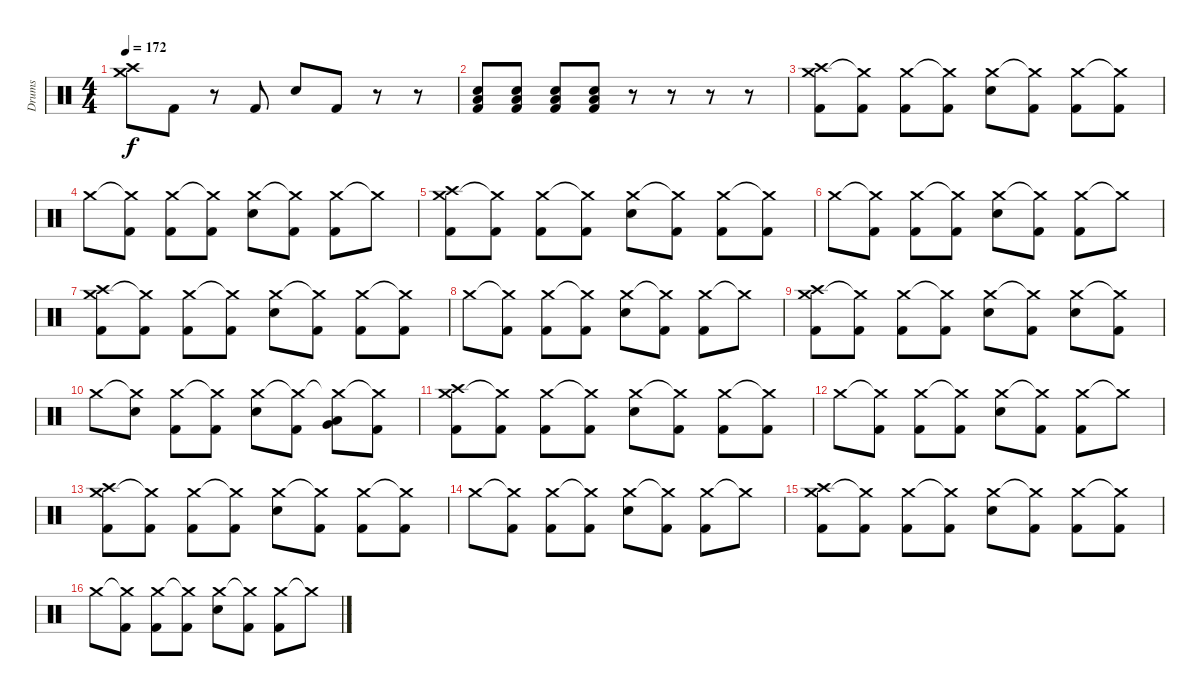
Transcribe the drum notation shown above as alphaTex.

\track ("Drums" "Drums") {instrument percussion}
\staff {score}
\articulation defaults
\ts (4 4)
\tempo 172
\clef neutral
\ks c
("Crash medium (hit)" "Crash high (hit)").8{dy f} "Kick (hit) 2".8 r.8 "Kick (hit) 2".8 "Electric Snare (hit)".8 "Kick (hit) 2".8 r.8 r.8 |
("Low Floor Tom (hit)" "Electric Snare (hit)" "Kick (hit) 2").8 ("Low Floor Tom (hit)" "Electric Snare (hit)" "Kick (hit) 2").8 ("Low Floor Tom (hit)" "Electric Snare (hit)" "Kick (hit) 2").8 ("Low Floor Tom (hit)" "Electric Snare (hit)" "Kick (hit) 2").8 r.8 r.8 r.8 r.8 |
("Crash medium (hit)" "Crash high (hit)" "Kick (hit) 2").8 ("Crash medium (hit)"{t} "Kick (hit) 2").8 ("Crash medium (hit)" "Kick (hit) 2").8 ("Crash medium (hit)"{t} "Kick (hit) 2").8 ("Crash medium (hit)" "Electric Snare (hit)").8 ("Crash medium (hit)"{t} "Kick (hit) 2").8 ("Crash medium (hit)" "Kick (hit) 2").8 ("Crash medium (hit)"{t} "Kick (hit) 2").8 |
"Crash medium (hit)".8 ("Crash medium (hit)"{t} "Kick (hit) 2").8 ("Crash medium (hit)" "Kick (hit) 2").8 ("Crash medium (hit)"{t} "Kick (hit) 2").8 ("Crash medium (hit)" "Electric Snare (hit)").8 ("Crash medium (hit)"{t} "Kick (hit) 2").8 ("Crash medium (hit)" "Kick (hit) 2").8 "Crash medium (hit)"{t}.8 |
("Crash medium (hit)" "Crash high (hit)" "Kick (hit) 2").8 ("Crash medium (hit)"{t} "Kick (hit) 2").8 ("Crash medium (hit)" "Kick (hit) 2").8 ("Crash medium (hit)"{t} "Kick (hit) 2").8 ("Crash medium (hit)" "Electric Snare (hit)").8 ("Crash medium (hit)"{t} "Kick (hit) 2").8 ("Crash medium (hit)" "Kick (hit) 2").8 ("Crash medium (hit)"{t} "Kick (hit) 2").8 |
"Crash medium (hit)".8 ("Crash medium (hit)"{t} "Kick (hit) 2").8 ("Crash medium (hit)" "Kick (hit) 2").8 ("Crash medium (hit)"{t} "Kick (hit) 2").8 ("Crash medium (hit)" "Electric Snare (hit)").8 ("Crash medium (hit)"{t} "Kick (hit) 2").8 ("Crash medium (hit)" "Kick (hit) 2").8 "Crash medium (hit)"{t}.8 |
("Crash medium (hit)" "Crash high (hit)" "Kick (hit) 2").8 ("Crash medium (hit)"{t} "Kick (hit) 2").8 ("Crash medium (hit)" "Kick (hit) 2").8 ("Crash medium (hit)"{t} "Kick (hit) 2").8 ("Crash medium (hit)" "Electric Snare (hit)").8 ("Crash medium (hit)"{t} "Kick (hit) 2").8 ("Crash medium (hit)" "Kick (hit) 2").8 ("Crash medium (hit)"{t} "Kick (hit) 2").8 |
"Crash medium (hit)".8 ("Crash medium (hit)"{t} "Kick (hit) 2").8 ("Crash medium (hit)" "Kick (hit) 2").8 ("Crash medium (hit)"{t} "Kick (hit) 2").8 ("Crash medium (hit)" "Electric Snare (hit)").8 ("Crash medium (hit)"{t} "Kick (hit) 2").8 ("Crash medium (hit)" "Kick (hit) 2").8 "Crash medium (hit)"{t}.8 |
("Crash medium (hit)" "Crash high (hit)" "Kick (hit) 2").8 ("Crash medium (hit)"{t} "Kick (hit) 2").8 ("Crash medium (hit)" "Kick (hit) 2").8 ("Crash medium (hit)"{t} "Kick (hit) 2").8 ("Crash medium (hit)" "Electric Snare (hit)").8 ("Crash medium (hit)"{t} "Kick (hit) 2").8 ("Crash medium (hit)" "Electric Snare (hit)").8 ("Crash medium (hit)"{t} "Kick (hit) 2").8 |
"Crash medium (hit)".8 ("Crash medium (hit)"{t} "Electric Snare (hit)").8 ("Crash medium (hit)" "Kick (hit) 2").8 ("Crash medium (hit)"{t} "Kick (hit) 2").8 ("Crash medium (hit)" "Electric Snare (hit)").8 ("Crash medium (hit)"{t} "Kick (hit) 2").8 ("Crash medium (hit)"{t} "Low Floor Tom (hit)" "Very Low Tom (hit)").8 ("Crash medium (hit)"{t} "Kick (hit) 2").8 |
("Crash medium (hit)" "Crash high (hit)" "Kick (hit) 2").8 ("Crash medium (hit)"{t} "Kick (hit) 2").8 ("Crash medium (hit)" "Kick (hit) 2").8 ("Crash medium (hit)"{t} "Kick (hit) 2").8 ("Crash medium (hit)" "Electric Snare (hit)").8 ("Crash medium (hit)"{t} "Kick (hit) 2").8 ("Crash medium (hit)" "Kick (hit) 2").8 ("Crash medium (hit)"{t} "Kick (hit) 2").8 |
"Crash medium (hit)".8 ("Crash medium (hit)"{t} "Kick (hit) 2").8 ("Crash medium (hit)" "Kick (hit) 2").8 ("Crash medium (hit)"{t} "Kick (hit) 2").8 ("Crash medium (hit)" "Electric Snare (hit)").8 ("Crash medium (hit)"{t} "Kick (hit) 2").8 ("Crash medium (hit)" "Kick (hit) 2").8 "Crash medium (hit)"{t}.8 |
("Crash medium (hit)" "Crash high (hit)" "Kick (hit) 2").8 ("Crash medium (hit)"{t} "Kick (hit) 2").8 ("Crash medium (hit)" "Kick (hit) 2").8 ("Crash medium (hit)"{t} "Kick (hit) 2").8 ("Crash medium (hit)" "Electric Snare (hit)").8 ("Crash medium (hit)"{t} "Kick (hit) 2").8 ("Crash medium (hit)" "Kick (hit) 2").8 ("Crash medium (hit)"{t} "Kick (hit) 2").8 |
"Crash medium (hit)".8 ("Crash medium (hit)"{t} "Kick (hit) 2").8 ("Crash medium (hit)" "Kick (hit) 2").8 ("Crash medium (hit)"{t} "Kick (hit) 2").8 ("Crash medium (hit)" "Electric Snare (hit)").8 ("Crash medium (hit)"{t} "Kick (hit) 2").8 ("Crash medium (hit)" "Kick (hit) 2").8 "Crash medium (hit)"{t}.8 |
("Crash medium (hit)" "Crash high (hit)" "Kick (hit) 2").8 ("Crash medium (hit)"{t} "Kick (hit) 2").8 ("Crash medium (hit)" "Kick (hit) 2").8 ("Crash medium (hit)"{t} "Kick (hit) 2").8 ("Crash medium (hit)" "Electric Snare (hit)").8 ("Crash medium (hit)"{t} "Kick (hit) 2").8 ("Crash medium (hit)" "Kick (hit) 2").8 ("Crash medium (hit)"{t} "Kick (hit) 2").8 |
"Crash medium (hit)".8 ("Crash medium (hit)"{t} "Kick (hit) 2").8 ("Crash medium (hit)" "Kick (hit) 2").8 ("Crash medium (hit)"{t} "Kick (hit) 2").8 ("Crash medium (hit)" "Electric Snare (hit)").8 ("Crash medium (hit)"{t} "Kick (hit) 2").8 ("Crash medium (hit)" "Kick (hit) 2").8 "Crash medium (hit)"{t}.8
